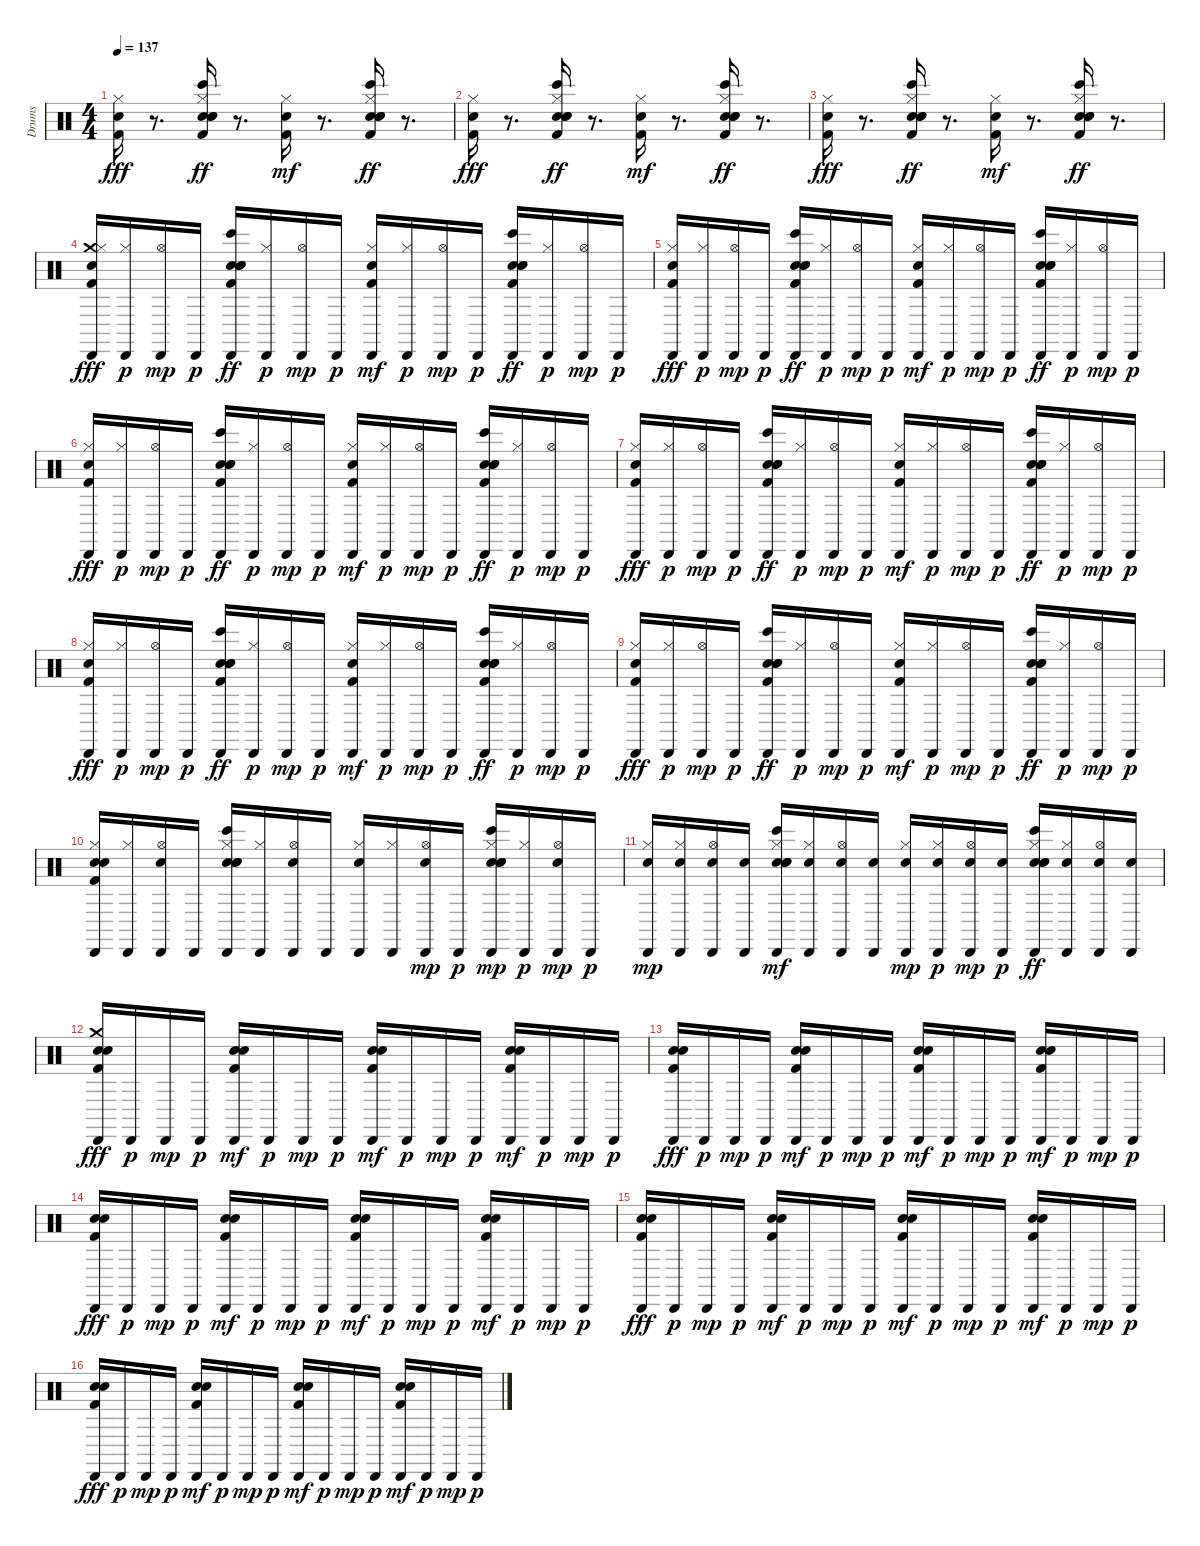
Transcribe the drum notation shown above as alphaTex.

\track ("Drums" "Drums") {instrument percussion}
\staff {score}
\articulation defaults
\ts (4 4)
\tempo 137
\clef neutral
\ks c
("Kick (hit) 2" "Snare (hit)" "Hi-Hat (closed)").16{dy fff} r.8{d} ("Snare (hit)" "Kick (hit) 2" "Bongo High (hit)" "Snare (hit) 2" "Hand Clap (hit)" "Hi-Hat (closed)").16{dy ff} r.8{d} ("Snare (hit)" "Kick (hit) 2" "Hi-Hat (closed)").16{dy mf} r.8{d} ("Snare (hit)" "Kick (hit) 2" "Bongo High (hit)" "Snare (hit) 2" "Hand Clap (hit)" "Hi-Hat (closed)").16{dy ff} r.8{d} |
("Kick (hit) 2" "Snare (hit)" "Hi-Hat (closed)").16{dy fff} r.8{d} ("Snare (hit)" "Kick (hit) 2" "Bongo High (hit)" "Snare (hit) 2" "Hand Clap (hit)" "Hi-Hat (closed)").16{dy ff} r.8{d} ("Snare (hit)" "Kick (hit) 2" "Hi-Hat (closed)").16{dy mf} r.8{d} ("Snare (hit)" "Kick (hit) 2" "Bongo High (hit)" "Snare (hit) 2" "Hand Clap (hit)" "Hi-Hat (closed)").16{dy ff} r.8{d} |
("Kick (hit) 2" "Snare (hit)" "Hi-Hat (closed)").16{dy fff} r.8{d} ("Snare (hit)" "Kick (hit) 2" "Bongo High (hit)" "Snare (hit) 2" "Hand Clap (hit)" "Hi-Hat (closed)").16{dy ff} r.8{d} ("Snare (hit)" "Kick (hit) 2" "Hi-Hat (closed)").16{dy mf} r.8{d} ("Snare (hit)" "Kick (hit) 2" "Bongo High (hit)" "Snare (hit) 2" "Hand Clap (hit)" "Hi-Hat (closed)").16{dy ff} r.8{d} |
("Crash medium (hit)" "Cabasa (hit)" "Kick (hit) 2" "Snare (hit)" "Hi-Hat (closed)").16{dy fff} ("Cabasa (hit)" "Hi-Hat (closed)").16{dy p} ("Cabasa (hit)" "Hi-Hat (open)").16{dy mp} "Cabasa (hit)".16{dy p} ("Cabasa (hit)" "Snare (hit)" "Kick (hit) 2" "Bongo High (hit)" "Snare (hit) 2" "Hand Clap (hit)").16{dy ff} ("Cabasa (hit)" "Hi-Hat (closed)").16{dy p} ("Cabasa (hit)" "Hi-Hat (open)").16{dy mp} "Cabasa (hit)".16{dy p} ("Cabasa (hit)" "Snare (hit)" "Kick (hit) 2" "Hi-Hat (closed)").16{dy mf} ("Cabasa (hit)" "Hi-Hat (closed)").16{dy p} ("Cabasa (hit)" "Hi-Hat (open)").16{dy mp} "Cabasa (hit)".16{dy p} ("Cabasa (hit)" "Snare (hit)" "Kick (hit) 2" "Bongo High (hit)" "Snare (hit) 2" "Hand Clap (hit)").16{dy ff} ("Cabasa (hit)" "Hi-Hat (closed)").16{dy p} ("Cabasa (hit)" "Hi-Hat (open)").16{dy mp} "Cabasa (hit)".16{dy p} |
("Cabasa (hit)" "Kick (hit) 2" "Snare (hit)" "Hi-Hat (closed)").16{dy fff} ("Cabasa (hit)" "Hi-Hat (closed)").16{dy p} ("Cabasa (hit)" "Hi-Hat (open)").16{dy mp} "Cabasa (hit)".16{dy p} ("Cabasa (hit)" "Snare (hit)" "Kick (hit) 2" "Bongo High (hit)" "Snare (hit) 2" "Hand Clap (hit)").16{dy ff} ("Cabasa (hit)" "Hi-Hat (closed)").16{dy p} ("Cabasa (hit)" "Hi-Hat (open)").16{dy mp} "Cabasa (hit)".16{dy p} ("Cabasa (hit)" "Snare (hit)" "Kick (hit) 2" "Hi-Hat (closed)").16{dy mf} ("Cabasa (hit)" "Hi-Hat (closed)").16{dy p} ("Cabasa (hit)" "Hi-Hat (open)").16{dy mp} "Cabasa (hit)".16{dy p} ("Cabasa (hit)" "Snare (hit)" "Kick (hit) 2" "Bongo High (hit)" "Snare (hit) 2" "Hand Clap (hit)").16{dy ff} ("Cabasa (hit)" "Hi-Hat (closed)").16{dy p} ("Cabasa (hit)" "Hi-Hat (open)").16{dy mp} "Cabasa (hit)".16{dy p} |
("Cabasa (hit)" "Kick (hit) 2" "Snare (hit)" "Hi-Hat (closed)").16{dy fff} ("Cabasa (hit)" "Hi-Hat (closed)").16{dy p} ("Cabasa (hit)" "Hi-Hat (open)").16{dy mp} "Cabasa (hit)".16{dy p} ("Cabasa (hit)" "Snare (hit)" "Kick (hit) 2" "Bongo High (hit)" "Snare (hit) 2" "Hand Clap (hit)").16{dy ff} ("Cabasa (hit)" "Hi-Hat (closed)").16{dy p} ("Cabasa (hit)" "Hi-Hat (open)").16{dy mp} "Cabasa (hit)".16{dy p} ("Cabasa (hit)" "Snare (hit)" "Kick (hit) 2" "Hi-Hat (closed)").16{dy mf} ("Cabasa (hit)" "Hi-Hat (closed)").16{dy p} ("Cabasa (hit)" "Hi-Hat (open)").16{dy mp} "Cabasa (hit)".16{dy p} ("Cabasa (hit)" "Snare (hit)" "Kick (hit) 2" "Bongo High (hit)" "Snare (hit) 2" "Hand Clap (hit)").16{dy ff} ("Cabasa (hit)" "Hi-Hat (closed)").16{dy p} ("Cabasa (hit)" "Hi-Hat (open)").16{dy mp} "Cabasa (hit)".16{dy p} |
("Cabasa (hit)" "Kick (hit) 2" "Snare (hit)" "Hi-Hat (closed)").16{dy fff} ("Cabasa (hit)" "Hi-Hat (closed)").16{dy p} ("Cabasa (hit)" "Hi-Hat (open)").16{dy mp} "Cabasa (hit)".16{dy p} ("Cabasa (hit)" "Snare (hit)" "Kick (hit) 2" "Bongo High (hit)" "Snare (hit) 2" "Hand Clap (hit)").16{dy ff} ("Cabasa (hit)" "Hi-Hat (closed)").16{dy p} ("Cabasa (hit)" "Hi-Hat (open)").16{dy mp} "Cabasa (hit)".16{dy p} ("Cabasa (hit)" "Snare (hit)" "Kick (hit) 2" "Hi-Hat (closed)").16{dy mf} ("Cabasa (hit)" "Hi-Hat (closed)").16{dy p} ("Cabasa (hit)" "Hi-Hat (open)").16{dy mp} "Cabasa (hit)".16{dy p} ("Cabasa (hit)" "Snare (hit)" "Kick (hit) 2" "Bongo High (hit)" "Snare (hit) 2" "Hand Clap (hit)").16{dy ff} ("Cabasa (hit)" "Hi-Hat (closed)").16{dy p} ("Cabasa (hit)" "Hi-Hat (open)").16{dy mp} "Cabasa (hit)".16{dy p} |
("Cabasa (hit)" "Kick (hit) 2" "Snare (hit)" "Hi-Hat (closed)").16{dy fff} ("Cabasa (hit)" "Hi-Hat (closed)").16{dy p} ("Cabasa (hit)" "Hi-Hat (open)").16{dy mp} "Cabasa (hit)".16{dy p} ("Cabasa (hit)" "Snare (hit)" "Kick (hit) 2" "Bongo High (hit)" "Snare (hit) 2" "Hand Clap (hit)").16{dy ff} ("Cabasa (hit)" "Hi-Hat (closed)").16{dy p} ("Cabasa (hit)" "Hi-Hat (open)").16{dy mp} "Cabasa (hit)".16{dy p} ("Cabasa (hit)" "Snare (hit)" "Kick (hit) 2" "Hi-Hat (closed)").16{dy mf} ("Cabasa (hit)" "Hi-Hat (closed)").16{dy p} ("Cabasa (hit)" "Hi-Hat (open)").16{dy mp} "Cabasa (hit)".16{dy p} ("Cabasa (hit)" "Snare (hit)" "Kick (hit) 2" "Bongo High (hit)" "Snare (hit) 2" "Hand Clap (hit)").16{dy ff} ("Cabasa (hit)" "Hi-Hat (closed)").16{dy p} ("Cabasa (hit)" "Hi-Hat (open)").16{dy mp} "Cabasa (hit)".16{dy p} |
("Cabasa (hit)" "Kick (hit) 2" "Snare (hit)" "Hi-Hat (closed)").16{dy fff} ("Cabasa (hit)" "Hi-Hat (closed)").16{dy p} ("Cabasa (hit)" "Hi-Hat (open)").16{dy mp} "Cabasa (hit)".16{dy p} ("Cabasa (hit)" "Snare (hit)" "Kick (hit) 2" "Bongo High (hit)" "Snare (hit) 2" "Hand Clap (hit)").16{dy ff} ("Cabasa (hit)" "Hi-Hat (closed)").16{dy p} ("Cabasa (hit)" "Hi-Hat (open)").16{dy mp} "Cabasa (hit)".16{dy p} ("Cabasa (hit)" "Snare (hit)" "Kick (hit) 2" "Hi-Hat (closed)").16{dy mf} ("Cabasa (hit)" "Hi-Hat (closed)").16{dy p} ("Cabasa (hit)" "Hi-Hat (open)").16{dy mp} "Cabasa (hit)".16{dy p} ("Cabasa (hit)" "Snare (hit)" "Kick (hit) 2" "Bongo High (hit)" "Snare (hit) 2" "Hand Clap (hit)").16{dy ff} ("Cabasa (hit)" "Hi-Hat (closed)").16{dy p} ("Cabasa (hit)" "Hi-Hat (open)").16{dy mp} "Cabasa (hit)".16{dy p} |
("Cabasa (hit)" "Kick (hit) 2" "Snare (hit)" "Hi-Hat (closed)" "Electric Snare (hit)").16 ("Cabasa (hit)" "Hi-Hat (closed)").16 ("Cabasa (hit)" "Hi-Hat (open)" "Electric Snare (hit)").16 "Cabasa (hit)".16 ("Cabasa (hit)" "Bongo High (hit)" "Snare (hit) 2" "Hand Clap (hit)" "Hi-Hat (closed)" "Electric Snare (hit)").16 ("Cabasa (hit)" "Hi-Hat (closed)").16 ("Cabasa (hit)" "Hi-Hat (open)" "Electric Snare (hit)").16 "Cabasa (hit)".16 ("Cabasa (hit)" "Hi-Hat (closed)" "Electric Snare (hit)").16 ("Cabasa (hit)" "Hi-Hat (closed)").16 ("Cabasa (hit)" "Hi-Hat (open)" "Electric Snare (hit)").16{dy mp} "Cabasa (hit)".16{dy p} ("Cabasa (hit)" "Bongo High (hit)" "Snare (hit) 2" "Hand Clap (hit)" "Hi-Hat (closed)" "Electric Snare (hit)").16{dy mp} ("Cabasa (hit)" "Hi-Hat (closed)").16{dy p} ("Cabasa (hit)" "Hi-Hat (open)" "Electric Snare (hit)").16{dy mp} "Cabasa (hit)".16{dy p} |
("Cabasa (hit)" "Hi-Hat (closed)" "Electric Snare (hit)").16{dy mp} ("Cabasa (hit)" "Hi-Hat (closed)" "Electric Snare (hit)").16 ("Cabasa (hit)" "Hi-Hat (open)" "Electric Snare (hit)").16 ("Cabasa (hit)" "Electric Snare (hit)").16 ("Cabasa (hit)" "Bongo High (hit)" "Snare (hit) 2" "Hand Clap (hit)" "Hi-Hat (closed)" "Electric Snare (hit)").16{dy mf} ("Cabasa (hit)" "Hi-Hat (closed)" "Electric Snare (hit)").16 ("Cabasa (hit)" "Hi-Hat (open)" "Electric Snare (hit)").16 ("Cabasa (hit)" "Electric Snare (hit)").16 ("Cabasa (hit)" "Hi-Hat (closed)" "Electric Snare (hit)").16{dy mp} ("Cabasa (hit)" "Hi-Hat (closed)" "Electric Snare (hit)").16{dy p} ("Cabasa (hit)" "Hi-Hat (open)" "Electric Snare (hit)").16{dy mp} ("Cabasa (hit)" "Electric Snare (hit)").16{dy p} ("Cabasa (hit)" "Bongo High (hit)" "Snare (hit) 2" "Hand Clap (hit)" "Hi-Hat (closed)" "Electric Snare (hit)").16{dy ff} ("Cabasa (hit)" "Hi-Hat (closed)" "Electric Snare (hit)").16 ("Cabasa (hit)" "Hi-Hat (open)" "Electric Snare (hit)").16 ("Cabasa (hit)" "Electric Snare (hit)").16 |
("Crash medium (hit)" "Cabasa (hit)" "Kick (hit) 2" "Snare (hit)" "Hand Clap (hit)").16{dy fff} "Cabasa (hit)".16{dy p} "Cabasa (hit)".16{dy mp} "Cabasa (hit)".16{dy p} ("Cabasa (hit)" "Snare (hit)" "Kick (hit) 2" "Hand Clap (hit)").16{dy mf} "Cabasa (hit)".16{dy p} "Cabasa (hit)".16{dy mp} "Cabasa (hit)".16{dy p} ("Cabasa (hit)" "Snare (hit)" "Kick (hit) 2" "Hand Clap (hit)").16{dy mf} "Cabasa (hit)".16{dy p} "Cabasa (hit)".16{dy mp} "Cabasa (hit)".16{dy p} ("Cabasa (hit)" "Snare (hit)" "Kick (hit) 2" "Hand Clap (hit)").16{dy mf} "Cabasa (hit)".16{dy p} "Cabasa (hit)".16{dy mp} "Cabasa (hit)".16{dy p} |
("Cabasa (hit)" "Kick (hit) 2" "Snare (hit)" "Hand Clap (hit)").16{dy fff} "Cabasa (hit)".16{dy p} "Cabasa (hit)".16{dy mp} "Cabasa (hit)".16{dy p} ("Cabasa (hit)" "Snare (hit)" "Kick (hit) 2" "Hand Clap (hit)").16{dy mf} "Cabasa (hit)".16{dy p} "Cabasa (hit)".16{dy mp} "Cabasa (hit)".16{dy p} ("Cabasa (hit)" "Snare (hit)" "Kick (hit) 2" "Hand Clap (hit)").16{dy mf} "Cabasa (hit)".16{dy p} "Cabasa (hit)".16{dy mp} "Cabasa (hit)".16{dy p} ("Cabasa (hit)" "Snare (hit)" "Kick (hit) 2" "Hand Clap (hit)").16{dy mf} "Cabasa (hit)".16{dy p} "Cabasa (hit)".16{dy mp} "Cabasa (hit)".16{dy p} |
("Cabasa (hit)" "Kick (hit) 2" "Snare (hit)" "Hand Clap (hit)").16{dy fff} "Cabasa (hit)".16{dy p} "Cabasa (hit)".16{dy mp} "Cabasa (hit)".16{dy p} ("Cabasa (hit)" "Snare (hit)" "Kick (hit) 2" "Hand Clap (hit)").16{dy mf} "Cabasa (hit)".16{dy p} "Cabasa (hit)".16{dy mp} "Cabasa (hit)".16{dy p} ("Cabasa (hit)" "Snare (hit)" "Kick (hit) 2" "Hand Clap (hit)").16{dy mf} "Cabasa (hit)".16{dy p} "Cabasa (hit)".16{dy mp} "Cabasa (hit)".16{dy p} ("Cabasa (hit)" "Snare (hit)" "Kick (hit) 2" "Hand Clap (hit)").16{dy mf} "Cabasa (hit)".16{dy p} "Cabasa (hit)".16{dy mp} "Cabasa (hit)".16{dy p} |
("Cabasa (hit)" "Kick (hit) 2" "Snare (hit)" "Hand Clap (hit)").16{dy fff} "Cabasa (hit)".16{dy p} "Cabasa (hit)".16{dy mp} "Cabasa (hit)".16{dy p} ("Cabasa (hit)" "Snare (hit)" "Kick (hit) 2" "Hand Clap (hit)").16{dy mf} "Cabasa (hit)".16{dy p} "Cabasa (hit)".16{dy mp} "Cabasa (hit)".16{dy p} ("Cabasa (hit)" "Snare (hit)" "Kick (hit) 2" "Hand Clap (hit)").16{dy mf} "Cabasa (hit)".16{dy p} "Cabasa (hit)".16{dy mp} "Cabasa (hit)".16{dy p} ("Cabasa (hit)" "Snare (hit)" "Kick (hit) 2" "Hand Clap (hit)").16{dy mf} "Cabasa (hit)".16{dy p} "Cabasa (hit)".16{dy mp} "Cabasa (hit)".16{dy p} |
("Cabasa (hit)" "Kick (hit) 2" "Snare (hit)" "Hand Clap (hit)").16{dy fff} "Cabasa (hit)".16{dy p} "Cabasa (hit)".16{dy mp} "Cabasa (hit)".16{dy p} ("Cabasa (hit)" "Snare (hit)" "Kick (hit) 2" "Hand Clap (hit)").16{dy mf} "Cabasa (hit)".16{dy p} "Cabasa (hit)".16{dy mp} "Cabasa (hit)".16{dy p} ("Cabasa (hit)" "Snare (hit)" "Kick (hit) 2" "Hand Clap (hit)").16{dy mf} "Cabasa (hit)".16{dy p} "Cabasa (hit)".16{dy mp} "Cabasa (hit)".16{dy p} ("Cabasa (hit)" "Snare (hit)" "Kick (hit) 2" "Hand Clap (hit)").16{dy mf} "Cabasa (hit)".16{dy p} "Cabasa (hit)".16{dy mp} "Cabasa (hit)".16{dy p}
